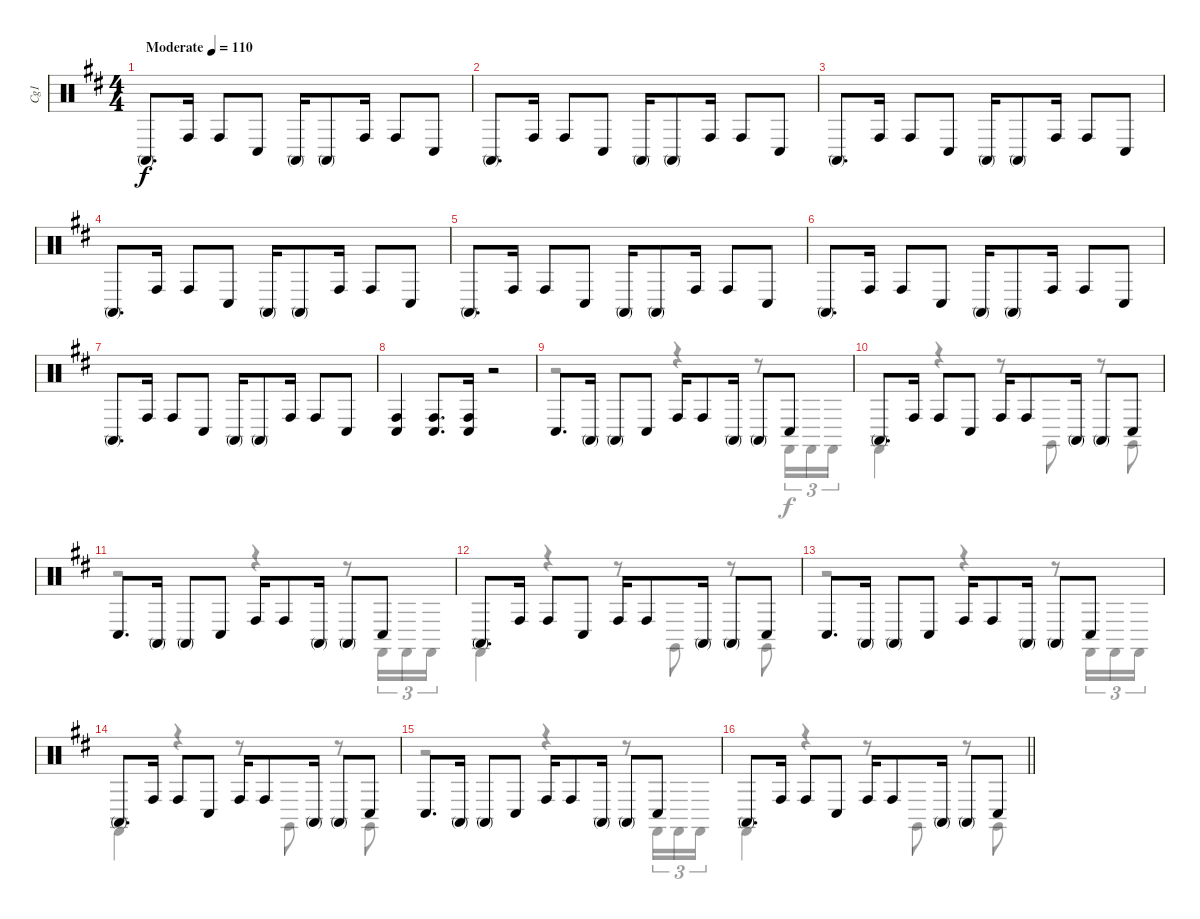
\track ("Cg1" "Cg1") {instrument percussion}
\staff {score}
\articulation defaults
\voice
\ts (4 4)
\tempo (110 "Moderate")
\clef neutral
\ks d "Conga high (mute)".8{d dy f} "Conga high (hit)".16 "Conga high (hit)".8 "Conga low (hit)".8 "Conga high (mute)".16 "Conga high (mute)".8 "Conga high (hit)".16 "Conga high (hit)".8 "Conga low (hit)".8
|
"Conga high (mute)".8{d} "Conga high (hit)".16 "Conga high (hit)".8 "Conga low (hit)".8 "Conga high (mute)".16 "Conga high (mute)".8 "Conga high (hit)".16 "Conga high (hit)".8 "Conga low (hit)".8 |
"Conga high (mute)".8{d} "Conga high (hit)".16 "Conga high (hit)".8 "Conga low (hit)".8 "Conga high (mute)".16 "Conga high (mute)".8 "Conga high (hit)".16 "Conga high (hit)".8 "Conga low (hit)".8 |
"Conga high (mute)".8{d} "Conga high (hit)".16 "Conga high (hit)".8 "Conga low (hit)".8 "Conga high (mute)".16 "Conga high (mute)".8 "Conga high (hit)".16 "Conga high (hit)".8 "Conga low (hit)".8 |
"Conga high (mute)".8{d} "Conga high (hit)".16 "Conga high (hit)".8 "Conga low (hit)".8 "Conga high (mute)".16 "Conga high (mute)".8 "Conga high (hit)".16 "Conga high (hit)".8 "Conga low (hit)".8 |
"Conga high (mute)".8{d} "Conga high (hit)".16 "Conga high (hit)".8 "Conga low (hit)".8 "Conga high (mute)".16 "Conga high (mute)".8 "Conga high (hit)".16 "Conga high (hit)".8 "Conga low (hit)".8 |
"Conga high (mute)".8{d} "Conga high (hit)".16 "Conga high (hit)".8 "Conga low (hit)".8 "Conga high (mute)".16 "Conga high (mute)".8 "Conga high (hit)".16 "Conga high (hit)".8 "Conga low (hit)".8 |
("Conga high (hit)" "Conga low (hit)").4 ("Conga high (hit)" "Conga low (hit)").8{d} ("Conga high (hit)" "Conga low (hit)").16 r.2 |
"Conga low (hit)".8{d} "Conga high (mute)".16 "Conga high (mute)".8 "Conga low (hit)".8 "Conga high (hit)".16 "Conga high (hit)".8 "Conga high (mute)".16 "Conga high (mute)".8 "Conga low (hit)".8 |
"Conga high (mute)".8{d} "Conga high (hit)".16 "Conga high (hit)".8 "Conga low (hit)".8 "Conga high (hit)".16 "Conga high (hit)".8 "Conga high (mute)".16 "Conga high (mute)".8 "Conga low (hit)".8 |
"Conga low (hit)".8{d} "Conga high (mute)".16 "Conga high (mute)".8 "Conga low (hit)".8 "Conga high (hit)".16 "Conga high (hit)".8 "Conga high (mute)".16 "Conga high (mute)".8 "Conga low (hit)".8 |
"Conga high (mute)".8{d} "Conga high (hit)".16 "Conga high (hit)".8 "Conga low (hit)".8 "Conga high (hit)".16 "Conga high (hit)".8 "Conga high (mute)".16 "Conga high (mute)".8 "Conga low (hit)".8 |
"Conga low (hit)".8{d} "Conga high (mute)".16 "Conga high (mute)".8 "Conga low (hit)".8 "Conga high (hit)".16 "Conga high (hit)".8 "Conga high (mute)".16 "Conga high (mute)".8 "Conga low (hit)".8 |
"Conga high (mute)".8{d} "Conga high (hit)".16 "Conga high (hit)".8 "Conga low (hit)".8 "Conga high (hit)".16 "Conga high (hit)".8 "Conga high (mute)".16 "Conga high (mute)".8 "Conga low (hit)".8 |
"Conga low (hit)".8{d} "Conga high (mute)".16 "Conga high (mute)".8 "Conga low (hit)".8 "Conga high (hit)".16 "Conga high (hit)".8 "Conga high (mute)".16 "Conga high (mute)".8 "Conga low (hit)".8 |
\barLineRight lightlight "Conga high (mute)".8{d} "Conga high (hit)".16 "Conga high (hit)".8 "Conga low (hit)".8 "Conga high (hit)".16 "Conga high (hit)".8 "Conga high (mute)".16 "Conga high (mute)".8 "Conga low (hit)".8
\voice
\clef neutral
\ottava regular
\simile none
\ks d
|
|
|
|
|
|
|
|
r.2 r.4 r.8 "Castanets (hit)".16{tu (3 2)} "Castanets (hit)".16{tu (3 2)} "Castanets (hit)".16{tu (3 2)} |
"Castanets (hit)".4 r.4 r.8 "Claves (hit)".8 r.8 "Claves (hit)".8 |
r.2 r.4 r.8 "Castanets (hit)".16{tu (3 2)} "Castanets (hit)".16{tu (3 2)} "Castanets (hit)".16{tu (3 2)} |
"Castanets (hit)".4 r.4 r.8 "Claves (hit)".8 r.8 "Claves (hit)".8 |
r.2 r.4 r.8 "Castanets (hit)".16{tu (3 2)} "Castanets (hit)".16{tu (3 2)} "Castanets (hit)".16{tu (3 2)} |
"Castanets (hit)".4 r.4 r.8 "Claves (hit)".8 r.8 "Claves (hit)".8 |
r.2 r.4 r.8 "Castanets (hit)".16{tu (3 2)} "Castanets (hit)".16{tu (3 2)} "Castanets (hit)".16{tu (3 2)} |
\barLineRight lightlight "Castanets (hit)".4
r.4 r.8 "Claves (hit)".8 r.8 "Claves (hit)".8
